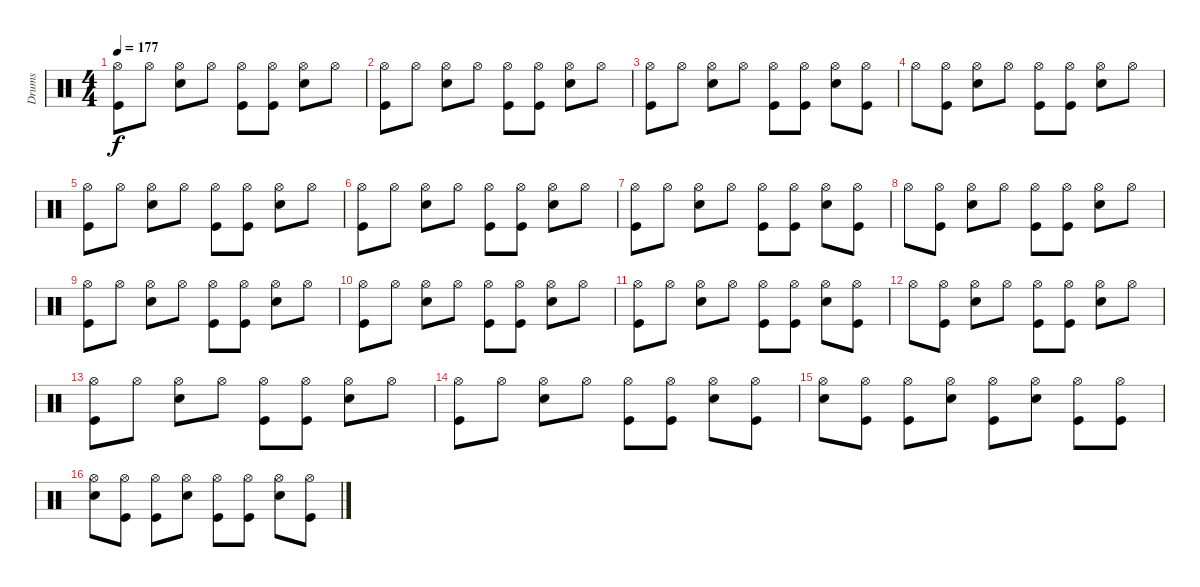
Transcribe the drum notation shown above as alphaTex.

\track ("Drums" "Drums") {instrument percussion}
\staff {score}
\articulation defaults
\ts (4 4)
\tempo 177
\clef neutral
\ks c
("Hi-Hat (open)" "Kick (hit)").8{dy f} "Hi-Hat (open)".8 ("Hi-Hat (open)" "Snare (hit) 2").8 "Hi-Hat (open)".8 ("Hi-Hat (open)" "Kick (hit)").8 ("Hi-Hat (open)" "Kick (hit)").8 ("Hi-Hat (open)" "Snare (hit) 2").8 "Hi-Hat (open)".8 |
("Hi-Hat (open)" "Kick (hit)").8 "Hi-Hat (open)".8 ("Hi-Hat (open)" "Snare (hit) 2").8 "Hi-Hat (open)".8 ("Hi-Hat (open)" "Kick (hit)").8 ("Hi-Hat (open)" "Kick (hit)").8 ("Hi-Hat (open)" "Snare (hit) 2").8 "Hi-Hat (open)".8 |
("Hi-Hat (open)" "Kick (hit)").8 "Hi-Hat (open)".8 ("Hi-Hat (open)" "Snare (hit) 2").8 "Hi-Hat (open)".8 ("Hi-Hat (open)" "Kick (hit)").8 ("Hi-Hat (open)" "Kick (hit)").8 ("Hi-Hat (open)" "Snare (hit) 2").8 ("Hi-Hat (open)" "Kick (hit)").8 |
"Hi-Hat (open)".8 ("Hi-Hat (open)" "Kick (hit)").8 ("Hi-Hat (open)" "Snare (hit) 2").8 "Hi-Hat (open)".8 ("Hi-Hat (open)" "Kick (hit)").8 ("Hi-Hat (open)" "Kick (hit)").8 ("Hi-Hat (open)" "Snare (hit) 2").8 "Hi-Hat (open)".8 |
("Hi-Hat (open)" "Kick (hit)").8 "Hi-Hat (open)".8 ("Hi-Hat (open)" "Snare (hit) 2").8 "Hi-Hat (open)".8 ("Hi-Hat (open)" "Kick (hit)").8 ("Hi-Hat (open)" "Kick (hit)").8 ("Hi-Hat (open)" "Snare (hit) 2").8 "Hi-Hat (open)".8 |
("Hi-Hat (open)" "Kick (hit)").8 "Hi-Hat (open)".8 ("Hi-Hat (open)" "Snare (hit) 2").8 "Hi-Hat (open)".8 ("Hi-Hat (open)" "Kick (hit)").8 ("Hi-Hat (open)" "Kick (hit)").8 ("Hi-Hat (open)" "Snare (hit) 2").8 "Hi-Hat (open)".8 |
("Hi-Hat (open)" "Kick (hit)").8 "Hi-Hat (open)".8 ("Hi-Hat (open)" "Snare (hit) 2").8 "Hi-Hat (open)".8 ("Hi-Hat (open)" "Kick (hit)").8 ("Hi-Hat (open)" "Kick (hit)").8 ("Hi-Hat (open)" "Snare (hit) 2").8 ("Hi-Hat (open)" "Kick (hit)").8 |
"Hi-Hat (open)".8 ("Hi-Hat (open)" "Kick (hit)").8 ("Hi-Hat (open)" "Snare (hit) 2").8 "Hi-Hat (open)".8 ("Hi-Hat (open)" "Kick (hit)").8 ("Hi-Hat (open)" "Kick (hit)").8 ("Hi-Hat (open)" "Snare (hit) 2").8 "Hi-Hat (open)".8 |
("Hi-Hat (open)" "Kick (hit)").8 "Hi-Hat (open)".8 ("Hi-Hat (open)" "Snare (hit) 2").8 "Hi-Hat (open)".8 ("Hi-Hat (open)" "Kick (hit)").8 ("Hi-Hat (open)" "Kick (hit)").8 ("Hi-Hat (open)" "Snare (hit) 2").8 "Hi-Hat (open)".8 |
("Hi-Hat (open)" "Kick (hit)").8 "Hi-Hat (open)".8 ("Hi-Hat (open)" "Snare (hit) 2").8 "Hi-Hat (open)".8 ("Hi-Hat (open)" "Kick (hit)").8 ("Hi-Hat (open)" "Kick (hit)").8 ("Hi-Hat (open)" "Snare (hit) 2").8 "Hi-Hat (open)".8 |
("Hi-Hat (open)" "Kick (hit)").8 "Hi-Hat (open)".8 ("Hi-Hat (open)" "Snare (hit) 2").8 "Hi-Hat (open)".8 ("Hi-Hat (open)" "Kick (hit)").8 ("Hi-Hat (open)" "Kick (hit)").8 ("Hi-Hat (open)" "Snare (hit) 2").8 ("Hi-Hat (open)" "Kick (hit)").8 |
"Hi-Hat (open)".8 ("Hi-Hat (open)" "Kick (hit)").8 ("Hi-Hat (open)" "Snare (hit) 2").8 "Hi-Hat (open)".8 ("Hi-Hat (open)" "Kick (hit)").8 ("Hi-Hat (open)" "Kick (hit)").8 ("Hi-Hat (open)" "Snare (hit) 2").8 "Hi-Hat (open)".8 |
("Hi-Hat (open)" "Kick (hit)").8 "Hi-Hat (open)".8 ("Hi-Hat (open)" "Snare (hit) 2").8 "Hi-Hat (open)".8 ("Hi-Hat (open)" "Kick (hit)").8 ("Hi-Hat (open)" "Kick (hit)").8 ("Hi-Hat (open)" "Snare (hit) 2").8 "Hi-Hat (open)".8 |
("Hi-Hat (open)" "Kick (hit)").8 "Hi-Hat (open)".8 ("Hi-Hat (open)" "Snare (hit) 2").8 "Hi-Hat (open)".8 ("Hi-Hat (open)" "Kick (hit)").8 ("Hi-Hat (open)" "Kick (hit)").8 ("Hi-Hat (open)" "Snare (hit) 2").8 ("Hi-Hat (open)" "Kick (hit)").8 |
("Hi-Hat (open)" "Snare (hit) 2").8 ("Hi-Hat (open)" "Kick (hit)").8 ("Hi-Hat (open)" "Kick (hit)").8 ("Hi-Hat (open)" "Snare (hit) 2").8 ("Hi-Hat (open)" "Kick (hit)").8 ("Hi-Hat (open)" "Snare (hit) 2").8 ("Hi-Hat (open)" "Kick (hit)").8 ("Hi-Hat (open)" "Kick (hit)").8 |
("Hi-Hat (open)" "Snare (hit) 2").8 ("Hi-Hat (open)" "Kick (hit)").8 ("Hi-Hat (open)" "Kick (hit)").8 ("Hi-Hat (open)" "Snare (hit) 2").8 ("Hi-Hat (open)" "Kick (hit)").8 ("Hi-Hat (open)" "Kick (hit)").8 ("Hi-Hat (open)" "Snare (hit) 2").8 ("Hi-Hat (open)" "Kick (hit)").8
